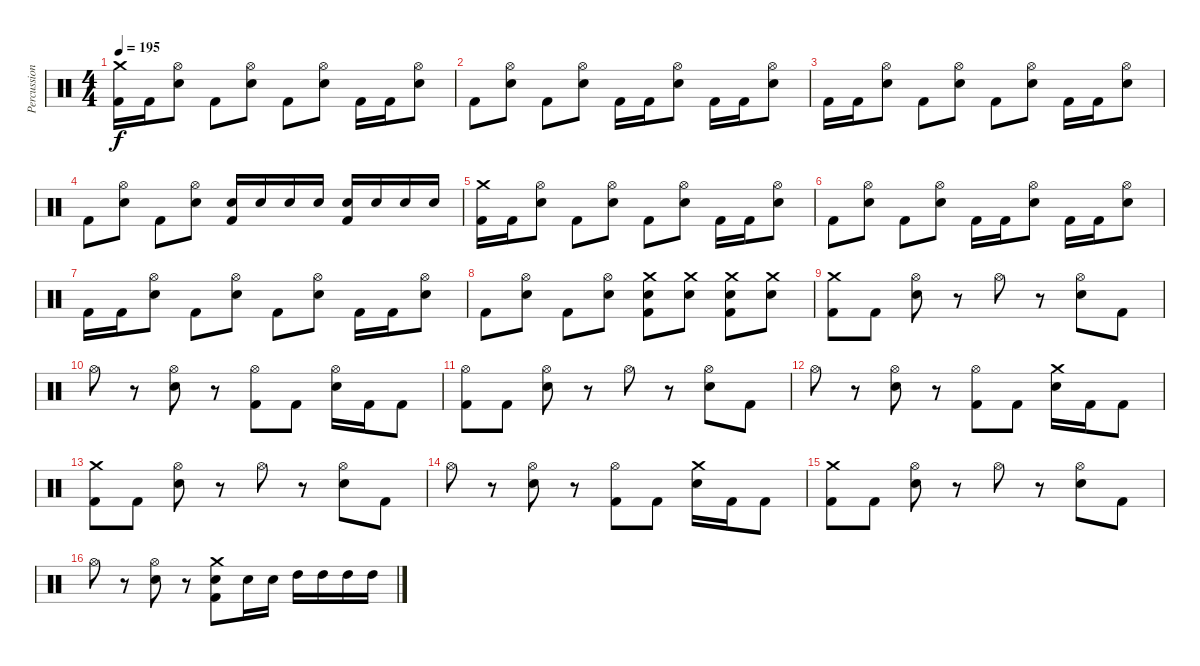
\track ("Percussion" "Percussion") {instrument percussion}
\staff {score}
\articulation defaults
\ts (4 4)
\tempo 195
\clef neutral
\ks c
("Crash medium (hit)" "Kick (hit) 2").16{dy f} "Kick (hit) 2".16 ("Hi-Hat (open)" "Snare (hit) 2").8 "Kick (hit) 2".8 ("Hi-Hat (open)" "Snare (hit) 2").8 "Kick (hit) 2".8 ("Hi-Hat (open)" "Snare (hit) 2").8 "Kick (hit) 2".16 "Kick (hit) 2".16 ("Hi-Hat (open)" "Snare (hit) 2").8 |
"Kick (hit) 2".8 ("Hi-Hat (open)" "Snare (hit) 2").8 "Kick (hit) 2".8 ("Hi-Hat (open)" "Snare (hit) 2").8 "Kick (hit) 2".16 "Kick (hit) 2".16 ("Hi-Hat (open)" "Snare (hit) 2").8 "Kick (hit) 2".16 "Kick (hit) 2".16 ("Hi-Hat (open)" "Snare (hit) 2").8 |
"Kick (hit) 2".16 "Kick (hit) 2".16 ("Hi-Hat (open)" "Snare (hit) 2").8 "Kick (hit) 2".8 ("Hi-Hat (open)" "Snare (hit) 2").8 "Kick (hit) 2".8 ("Hi-Hat (open)" "Snare (hit) 2").8 "Kick (hit) 2".16 "Kick (hit) 2".16 ("Hi-Hat (open)" "Snare (hit) 2").8 |
"Kick (hit) 2".8 ("Hi-Hat (open)" "Snare (hit) 2").8 "Kick (hit) 2".8 ("Hi-Hat (open)" "Snare (hit) 2").8 ("Snare (hit) 2" "Kick (hit) 2").16 "Snare (hit) 2".16 "Snare (hit) 2".16 "Snare (hit) 2".16 ("Snare (hit) 2" "Kick (hit) 2").16 "Snare (hit) 2".16 "Snare (hit) 2".16 "Snare (hit) 2".16 |
("Crash medium (hit)" "Kick (hit) 2").16 "Kick (hit) 2".16 ("Hi-Hat (open)" "Snare (hit) 2").8 "Kick (hit) 2".8 ("Hi-Hat (open)" "Snare (hit) 2").8 "Kick (hit) 2".8 ("Hi-Hat (open)" "Snare (hit) 2").8 "Kick (hit) 2".16 "Kick (hit) 2".16 ("Hi-Hat (open)" "Snare (hit) 2").8 |
"Kick (hit) 2".8 ("Hi-Hat (open)" "Snare (hit) 2").8 "Kick (hit) 2".8 ("Hi-Hat (open)" "Snare (hit) 2").8 "Kick (hit) 2".16 "Kick (hit) 2".16 ("Hi-Hat (open)" "Snare (hit) 2").8 "Kick (hit) 2".16 "Kick (hit) 2".16 ("Hi-Hat (open)" "Snare (hit) 2").8 |
"Kick (hit) 2".16 "Kick (hit) 2".16 ("Hi-Hat (open)" "Snare (hit) 2").8 "Kick (hit) 2".8 ("Hi-Hat (open)" "Snare (hit) 2").8 "Kick (hit) 2".8 ("Hi-Hat (open)" "Snare (hit) 2").8 "Kick (hit) 2".16 "Kick (hit) 2".16 ("Hi-Hat (open)" "Snare (hit) 2").8 |
"Kick (hit) 2".8 ("Hi-Hat (open)" "Snare (hit) 2").8 "Kick (hit) 2".8 ("Hi-Hat (open)" "Snare (hit) 2").8 ("Crash medium (hit)" "Snare (hit) 2" "Kick (hit) 2").8 ("Crash medium (hit)" "Snare (hit) 2").8 ("Crash medium (hit)" "Snare (hit) 2" "Kick (hit) 2").8 ("Crash medium (hit)" "Snare (hit) 2").8 |
("Crash medium (hit)" "Kick (hit) 2").8 "Kick (hit) 2".8 ("Hi-Hat (open)" "Snare (hit) 2").8 r.8 "Hi-Hat (open)".8 r.8 ("Hi-Hat (open)" "Snare (hit) 2").8 "Kick (hit) 2".8 |
"Hi-Hat (open)".8 r.8 ("Hi-Hat (open)" "Snare (hit) 2").8 r.8 ("Hi-Hat (open)" "Kick (hit) 2").8 "Kick (hit) 2".8 ("Hi-Hat (open)" "Snare (hit) 2").16 "Kick (hit) 2".16 "Kick (hit) 2".8 |
("Hi-Hat (open)" "Kick (hit) 2").8 "Kick (hit) 2".8 ("Hi-Hat (open)" "Snare (hit) 2").8 r.8 "Hi-Hat (open)".8 r.8 ("Hi-Hat (open)" "Snare (hit) 2").8 "Kick (hit) 2".8 |
"Hi-Hat (open)".8 r.8 ("Hi-Hat (open)" "Snare (hit) 2").8 r.8 ("Hi-Hat (open)" "Kick (hit) 2").8 "Kick (hit) 2".8 ("Crash medium (hit)" "Snare (hit) 2").16 "Kick (hit) 2".16 "Kick (hit) 2".8 |
("Crash medium (hit)" "Kick (hit) 2").8 "Kick (hit) 2".8 ("Hi-Hat (open)" "Snare (hit) 2").8 r.8 "Hi-Hat (open)".8 r.8 ("Hi-Hat (open)" "Snare (hit) 2").8 "Kick (hit) 2".8 |
"Hi-Hat (open)".8 r.8 ("Hi-Hat (open)" "Snare (hit) 2").8 r.8 ("Hi-Hat (open)" "Kick (hit) 2").8 "Kick (hit) 2".8 ("Crash medium (hit)" "Snare (hit) 2").16 "Kick (hit) 2".16 "Kick (hit) 2".8 |
("Crash medium (hit)" "Kick (hit) 2").8 "Kick (hit) 2".8 ("Hi-Hat (open)" "Snare (hit) 2").8 r.8 "Hi-Hat (open)".8 r.8 ("Hi-Hat (open)" "Snare (hit) 2").8 "Kick (hit) 2".8 |
"Hi-Hat (open)".8 r.8 ("Hi-Hat (open)" "Snare (hit) 2").8 r.8 ("Crash medium (hit)" "Snare (hit) 2" "Kick (hit) 2").8 "Snare (hit) 2".16 "Snare (hit) 2".16 "High Tom (hit)".16 "High Tom (hit)".16 "High Tom (hit)".16 "High Tom (hit)".16
